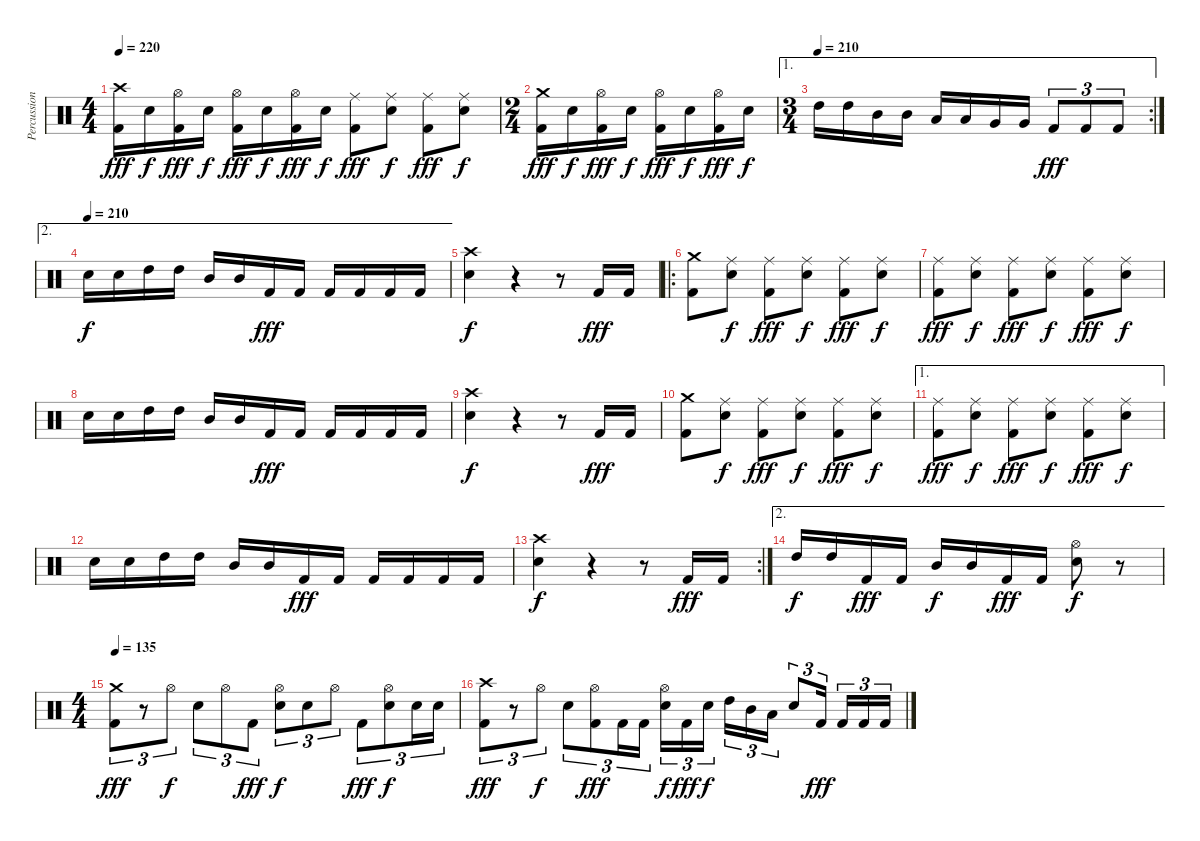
\track ("Percussions" "Percussion") {instrument percussion}
\staff {score}
\articulation defaults
\ts (4 4)
\tempo 220
\clef neutral
\ks c
("Crash high (hit)" "Kick (hit) 2").16{dy fff} "Electric Snare (hit)".16{dy f} ("Hi-Hat (open)" "Kick (hit) 2").16{dy fff} "Electric Snare (hit)".16{dy f} ("Hi-Hat (open)" "Kick (hit) 2").16{dy fff} "Electric Snare (hit)".16{dy f} ("Hi-Hat (open)" "Kick (hit) 2").16{dy fff} "Electric Snare (hit)".16{dy f} ("Ride (middle)" "Kick (hit) 2").8{dy fff} ("Ride (middle)" "Electric Snare (hit)").8{dy f} ("Ride (middle)" "Kick (hit) 2").8{dy fff} ("Ride (middle)" "Electric Snare (hit)").8{dy f} |
\ts (2 4)
("Crash medium (hit)" "Kick (hit) 2").16{dy fff} "Electric Snare (hit)".16{dy f} ("Hi-Hat (open)" "Kick (hit) 2").16{dy fff} "Electric Snare (hit)".16{dy f} ("Hi-Hat (open)" "Kick (hit) 2").16{dy fff} "Electric Snare (hit)".16{dy f} ("Hi-Hat (open)" "Kick (hit) 2").16{dy fff} "Electric Snare (hit)".16{dy f} |
\ae 1
\rc 2
\ts (3 4)
\tempo (210)
"High Tom (hit)".16 "High Tom (hit)".16 "Mid Tom (hit)".16 "Mid Tom (hit)".16 "Low Tom (hit)".16 "Low Tom (hit)".16 "Very Low Tom (hit)".16 "Very Low Tom (hit)".16 "Kick (hit) 2".8{tu (3 2) dy fff} "Kick (hit) 2".8{tu (3 2)} "Kick (hit) 2".8{tu (3 2)} |
\ae 2
\tempo (210)
"Electric Snare (hit)".16{dy f} "Electric Snare (hit)".16 "High Tom (hit)".16 "High Tom (hit)".16 "Mid Tom (hit)".16 "Mid Tom (hit)".16 "Kick (hit) 2".16{dy fff} "Kick (hit) 2".16 "Kick (hit) 2".16 "Kick (hit) 2".16 "Kick (hit) 2".16 "Kick (hit) 2".16 |
("Crash high (hit)" "Electric Snare (hit)").4{dy f} r.4 r.8 "Kick (hit) 2".16{dy fff} "Kick (hit) 2".16 |
\ro
("Crash medium (hit)" "Kick (hit) 2").8 ("Ride (middle)" "Electric Snare (hit)").8{dy f} ("Ride (middle)" "Kick (hit) 2").8{dy fff} ("Ride (middle)" "Electric Snare (hit)").8{dy f} ("Ride (middle)" "Kick (hit) 2").8{dy fff} ("Ride (middle)" "Electric Snare (hit)").8{dy f} |
("Ride (middle)" "Kick (hit) 2").8{dy fff} ("Ride (middle)" "Electric Snare (hit)").8{dy f} ("Ride (middle)" "Kick (hit) 2").8{dy fff} ("Ride (middle)" "Electric Snare (hit)").8{dy f} ("Ride (middle)" "Kick (hit) 2").8{dy fff} ("Ride (middle)" "Electric Snare (hit)").8{dy f} |
"Electric Snare (hit)".16 "Electric Snare (hit)".16 "High Tom (hit)".16 "High Tom (hit)".16 "Mid Tom (hit)".16 "Mid Tom (hit)".16 "Kick (hit) 2".16{dy fff} "Kick (hit) 2".16 "Kick (hit) 2".16 "Kick (hit) 2".16 "Kick (hit) 2".16 "Kick (hit) 2".16 |
("Crash high (hit)" "Electric Snare (hit)").4{dy f} r.4 r.8 "Kick (hit) 2".16{dy fff} "Kick (hit) 2".16 |
("Crash medium (hit)" "Kick (hit) 2").8 ("Ride (middle)" "Electric Snare (hit)").8{dy f} ("Ride (middle)" "Kick (hit) 2").8{dy fff} ("Ride (middle)" "Electric Snare (hit)").8{dy f} ("Ride (middle)" "Kick (hit) 2").8{dy fff} ("Ride (middle)" "Electric Snare (hit)").8{dy f} |
\ae 1
("Ride (middle)" "Kick (hit) 2").8{dy fff} ("Ride (middle)" "Electric Snare (hit)").8{dy f} ("Ride (middle)" "Kick (hit) 2").8{dy fff} ("Ride (middle)" "Electric Snare (hit)").8{dy f} ("Ride (middle)" "Kick (hit) 2").8{dy fff} ("Ride (middle)" "Electric Snare (hit)").8{dy f} |
"Electric Snare (hit)".16 "Electric Snare (hit)".16 "High Tom (hit)".16 "High Tom (hit)".16 "Mid Tom (hit)".16 "Mid Tom (hit)".16 "Kick (hit) 2".16{dy fff} "Kick (hit) 2".16 "Kick (hit) 2".16 "Kick (hit) 2".16 "Kick (hit) 2".16 "Kick (hit) 2".16 |
\rc 2
("Crash high (hit)" "Electric Snare (hit)").4{dy f} r.4 r.8 "Kick (hit) 2".16{dy fff} "Kick (hit) 2".16 |
\ae 2 "High Tom (hit)".16{dy f} "High Tom (hit)".16 "Kick (hit) 2".16{dy fff} "Kick (hit) 2".16 "Mid Tom (hit)".16{dy f} "Mid Tom (hit)".16 "Kick (hit) 2".16{dy fff} "Kick (hit) 2".16
("Hi-Hat (open)" "Electric Snare (hit)").8{dy f} r.8 |
\ts (4 4)
\tempo 135
("Crash medium (hit)" "Kick (hit) 2").8{tu (3 2) dy fff} r.8{tu (3 2)} "Hi-Hat (open)".8{tu (3 2) dy f} "Electric Snare (hit)".8{tu (3 2)} "Hi-Hat (open)".8{tu (3 2)} "Kick (hit) 2".8{tu (3 2) dy fff} ("Hi-Hat (open)" "Electric Snare (hit)").8{tu (3 2) dy f} "Electric Snare (hit)".8{tu (3 2)} "Hi-Hat (open)".8{tu (3 2)} "Kick (hit) 2".8{tu (3 2) dy fff} ("Hi-Hat (open)" "Electric Snare (hit)").8{tu (3 2) dy f} "Electric Snare (hit)".16{tu (3 2)} "Electric Snare (hit)".16{tu (3 2)} |
("Crash high (hit)" "Kick (hit) 2").8{tu (3 2) dy fff} r.8{tu (3 2)} "Hi-Hat (open)".8{tu (3 2) dy f} "Electric Snare (hit)".8{tu (3 2)} ("Hi-Hat (open)" "Kick (hit) 2").8{tu (3 2) dy fff} "Kick (hit) 2".16{tu (3 2)} "Kick (hit) 2".16{tu (3 2)} ("Hi-Hat (open)" "Electric Snare (hit)").16{tu (3 2) dy f} "Kick (hit) 2".16{tu (3 2) dy fff} "Electric Snare (hit)".16{tu (3 2) dy f beam splitsecondary} "High Tom (hit)".16{tu (3 2)} "Mid Tom (hit)".16{tu (3 2)} "Low Tom (hit)".16{tu (3 2)} "Electric Snare (hit)".8{tu (3 2)} "Kick (hit) 2".16{tu (3 2) dy fff beam splitsecondary} "Kick (hit) 2".16{tu (3 2)} "Kick (hit) 2".16{tu (3 2)} "Kick (hit) 2".16{tu (3 2)}
